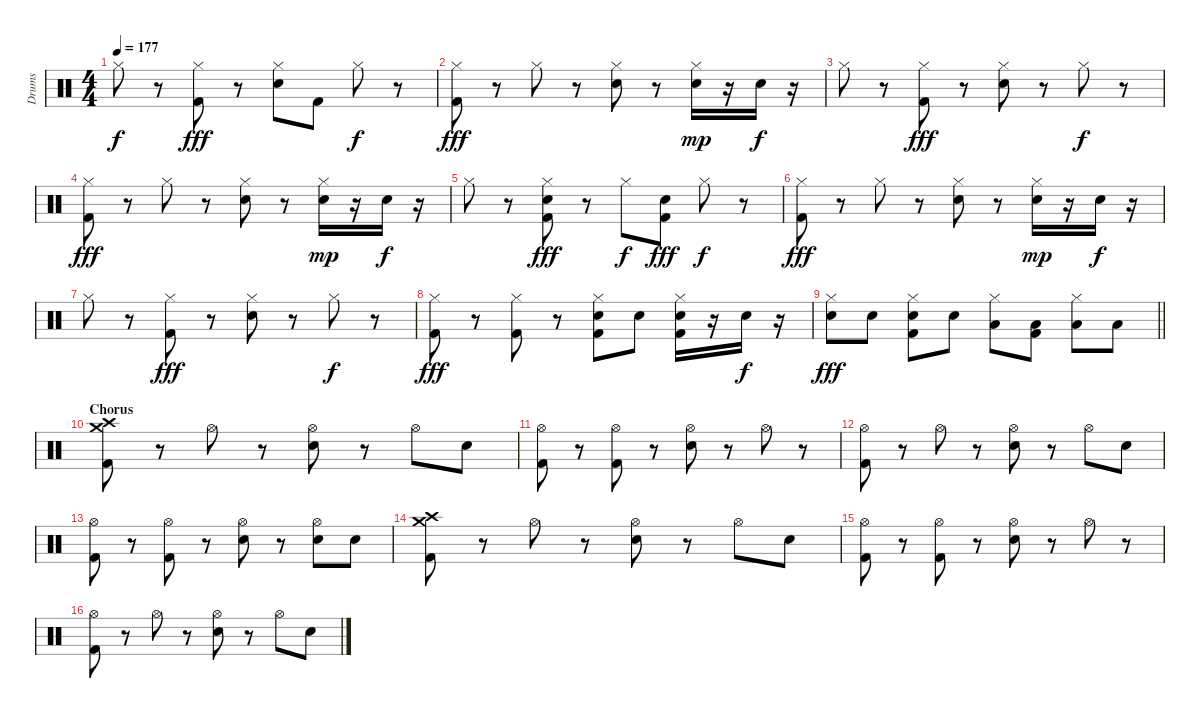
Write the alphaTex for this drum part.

\track ("Drums" "Drums") {instrument percussion}
\staff {score}
\articulation defaults
\ts (4 4)
\tempo 177
\clef neutral
\ks c "Hi-Hat (closed)".8{dy f}
r.8 ("Hi-Hat (closed)" "Kick (hit) 2").8{dy fff} r.8 ("Hi-Hat (closed)" "Snare (hit) 2").8 "Kick (hit) 2".8 "Hi-Hat (closed)".8{dy f} r.8 |
("Hi-Hat (closed)" "Kick (hit) 2").8{dy fff} r.8 "Hi-Hat (closed)".8 r.8 ("Hi-Hat (closed)" "Snare (hit) 2").8 r.8 ("Hi-Hat (closed)" "Snare (hit) 2").16{dy mp} r.16 "Snare (hit) 2".16{dy f} r.16 |
"Hi-Hat (closed)".8 r.8 ("Hi-Hat (closed)" "Kick (hit) 2").8{dy fff} r.8 ("Hi-Hat (closed)" "Snare (hit) 2").8 r.8 "Hi-Hat (closed)".8{dy f} r.8 |
("Hi-Hat (closed)" "Kick (hit) 2").8{dy fff} r.8 "Hi-Hat (closed)".8 r.8 ("Hi-Hat (closed)" "Snare (hit) 2").8 r.8 ("Hi-Hat (closed)" "Snare (hit) 2").16{dy mp} r.16 "Snare (hit) 2".16{dy f} r.16 |
"Hi-Hat (closed)".8 r.8 ("Hi-Hat (closed)" "Snare (hit) 2" "Kick (hit) 2").8{dy fff} r.8 "Hi-Hat (closed)".8{dy f} ("Snare (hit) 2" "Kick (hit) 2").8{dy fff} "Hi-Hat (closed)".8{dy f} r.8 |
("Hi-Hat (closed)" "Kick (hit) 2").8{dy fff} r.8 "Hi-Hat (closed)".8 r.8 ("Hi-Hat (closed)" "Snare (hit) 2").8 r.8 ("Hi-Hat (closed)" "Snare (hit) 2").16{dy mp} r.16 "Snare (hit) 2".16{dy f} r.16 |
"Hi-Hat (closed)".8 r.8 ("Hi-Hat (closed)" "Kick (hit) 2").8{dy fff} r.8 ("Hi-Hat (closed)" "Snare (hit) 2").8 r.8 "Hi-Hat (closed)".8{dy f} r.8 |
("Hi-Hat (closed)" "Kick (hit) 2").8{dy fff} r.8 ("Hi-Hat (closed)" "Kick (hit) 2").8 r.8 ("Hi-Hat (closed)" "Snare (hit) 2" "Kick (hit) 2").8 "Snare (hit) 2".8 ("Hi-Hat (closed)" "Snare (hit) 2" "Kick (hit) 2").16 r.16 "Snare (hit) 2".16{dy f} r.16 |
\barLineRight lightlight
("Hi-Hat (closed)" "Snare (hit) 2").8{dy fff} "Snare (hit) 2".8 ("Hi-Hat (closed)" "Snare (hit) 2" "Kick (hit) 2").8 "Snare (hit) 2".8 ("Hi-Hat (closed)" "Low Tom (hit)").8 ("Low Tom (hit)" "Kick (hit) 2").8 ("Hi-Hat (closed)" "Low Floor Tom (hit)").8 "Low Floor Tom (hit)".8 |
\section ("" "Chorus")
("Crash high (hit)" "Crash medium (hit)" "Kick (hit) 2").8 r.8 "Hi-Hat (open)".8 r.8 ("Hi-Hat (open)" "Snare (hit) 2").8 r.8 "Hi-Hat (open)".8 "Snare (hit) 2".8 |
("Hi-Hat (open)" "Kick (hit) 2").8 r.8 ("Hi-Hat (open)" "Kick (hit) 2").8 r.8 ("Hi-Hat (open)" "Snare (hit) 2").8 r.8 "Hi-Hat (open)".8 r.8 |
("Hi-Hat (open)" "Kick (hit) 2").8 r.8 "Hi-Hat (open)".8 r.8 ("Hi-Hat (open)" "Snare (hit) 2").8 r.8 "Hi-Hat (open)".8 "Snare (hit) 2".8 |
("Hi-Hat (open)" "Kick (hit) 2").8 r.8 ("Hi-Hat (open)" "Kick (hit) 2").8 r.8 ("Hi-Hat (open)" "Snare (hit) 2").8 r.8 ("Hi-Hat (open)" "Snare (hit) 2").8 "Snare (hit) 2".8 |
("Crash high (hit)" "Crash medium (hit)" "Kick (hit) 2").8 r.8 "Hi-Hat (open)".8 r.8 ("Hi-Hat (open)" "Snare (hit) 2").8 r.8 "Hi-Hat (open)".8 "Snare (hit) 2".8 |
("Hi-Hat (open)" "Kick (hit) 2").8 r.8 ("Hi-Hat (open)" "Kick (hit) 2").8 r.8 ("Hi-Hat (open)" "Snare (hit) 2").8 r.8 "Hi-Hat (open)".8 r.8 |
("Hi-Hat (open)" "Kick (hit) 2").8 r.8 "Hi-Hat (open)".8 r.8 ("Hi-Hat (open)" "Snare (hit) 2").8 r.8 "Hi-Hat (open)".8 "Snare (hit) 2".8
